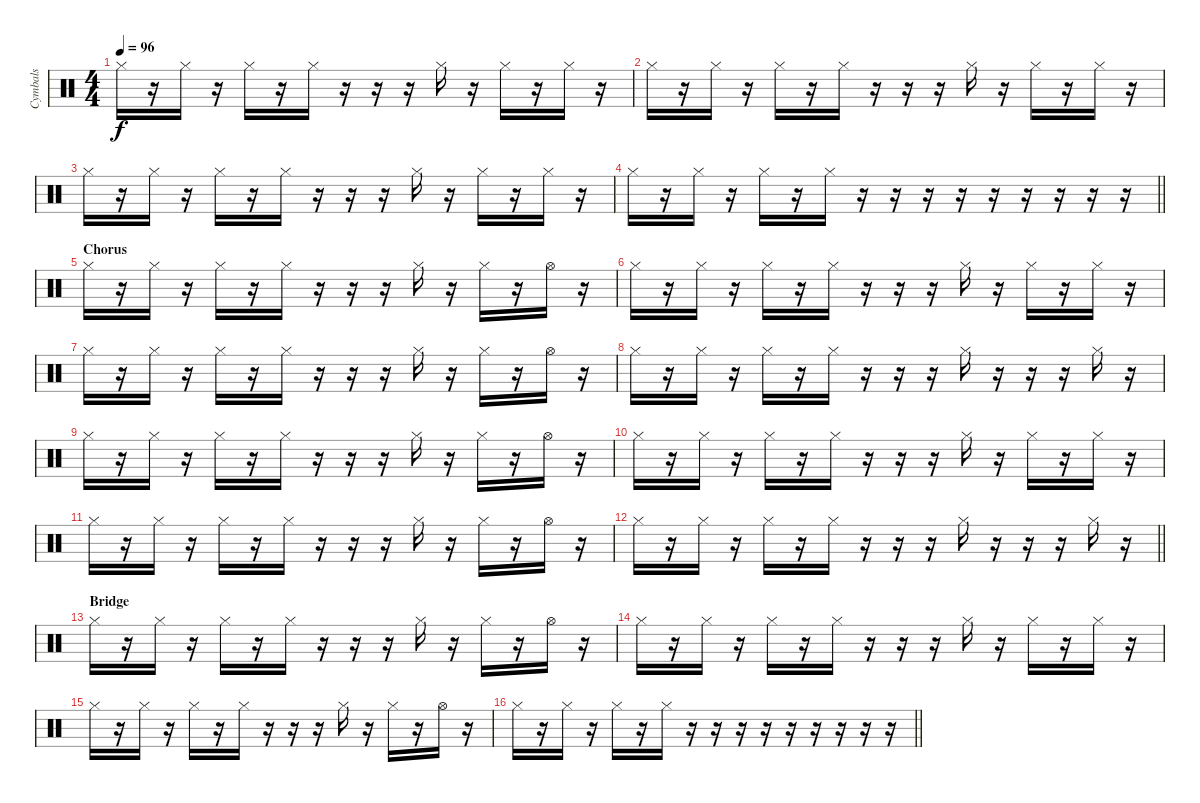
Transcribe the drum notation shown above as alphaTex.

\track ("Cymbals" "Cymbals") {instrument percussion}
\staff {score}
\articulation defaults
\ts (4 4)
\tempo 96
\clef neutral
\ks c "Hi-Hat (closed)".16{dy f}
r.16 "Hi-Hat (closed)".16 r.16 "Hi-Hat (closed)".16 r.16 "Hi-Hat (closed)".16 r.16 r.16 r.16 "Hi-Hat (closed)".16 r.16 "Hi-Hat (closed)".16 r.16 "Hi-Hat (closed)".16 r.16 |
"Hi-Hat (closed)".16 r.16 "Hi-Hat (closed)".16 r.16 "Hi-Hat (closed)".16 r.16 "Hi-Hat (closed)".16 r.16 r.16 r.16 "Hi-Hat (closed)".16 r.16 "Hi-Hat (closed)".16 r.16 "Hi-Hat (closed)".16 r.16 |
"Hi-Hat (closed)".16 r.16 "Hi-Hat (closed)".16 r.16 "Hi-Hat (closed)".16 r.16 "Hi-Hat (closed)".16 r.16 r.16 r.16 "Hi-Hat (closed)".16 r.16 "Hi-Hat (closed)".16 r.16 "Hi-Hat (closed)".16 r.16 |
\barLineRight lightlight "Hi-Hat (closed)".16
r.16 "Hi-Hat (closed)".16 r.16 "Hi-Hat (closed)".16 r.16 "Hi-Hat (closed)".16 r.16 r.16 r.16 r.16 r.16 r.16 r.16 r.16 r.16 |
\section ("" "Chorus")
"Hi-Hat (closed)".16 r.16 "Hi-Hat (closed)".16 r.16 "Hi-Hat (closed)".16 r.16 "Hi-Hat (closed)".16 r.16 r.16 r.16 "Hi-Hat (closed)".16 r.16 "Hi-Hat (closed)".16 r.16 "Hi-Hat (open)".16 r.16 |
"Hi-Hat (closed)".16 r.16 "Hi-Hat (closed)".16 r.16 "Hi-Hat (closed)".16 r.16 "Hi-Hat (closed)".16 r.16 r.16 r.16 "Hi-Hat (closed)".16 r.16 "Hi-Hat (closed)".16 r.16 "Hi-Hat (closed)".16 r.16 |
"Hi-Hat (closed)".16 r.16 "Hi-Hat (closed)".16 r.16 "Hi-Hat (closed)".16 r.16 "Hi-Hat (closed)".16 r.16 r.16 r.16 "Hi-Hat (closed)".16 r.16 "Hi-Hat (closed)".16 r.16 "Hi-Hat (open)".16 r.16 |
"Hi-Hat (closed)".16 r.16 "Hi-Hat (closed)".16 r.16 "Hi-Hat (closed)".16 r.16 "Hi-Hat (closed)".16 r.16 r.16 r.16 "Hi-Hat (closed)".16 r.16 r.16 r.16 "Hi-Hat (closed)".16 r.16 |
"Hi-Hat (closed)".16 r.16 "Hi-Hat (closed)".16 r.16 "Hi-Hat (closed)".16 r.16 "Hi-Hat (closed)".16 r.16 r.16 r.16 "Hi-Hat (closed)".16 r.16 "Hi-Hat (closed)".16 r.16 "Hi-Hat (open)".16 r.16 |
"Hi-Hat (closed)".16 r.16 "Hi-Hat (closed)".16 r.16 "Hi-Hat (closed)".16 r.16 "Hi-Hat (closed)".16 r.16 r.16 r.16 "Hi-Hat (closed)".16 r.16 "Hi-Hat (closed)".16 r.16 "Hi-Hat (closed)".16 r.16 |
"Hi-Hat (closed)".16 r.16 "Hi-Hat (closed)".16 r.16 "Hi-Hat (closed)".16 r.16 "Hi-Hat (closed)".16 r.16 r.16 r.16 "Hi-Hat (closed)".16 r.16 "Hi-Hat (closed)".16 r.16 "Hi-Hat (open)".16 r.16 |
\barLineRight lightlight "Hi-Hat (closed)".16
r.16 "Hi-Hat (closed)".16 r.16 "Hi-Hat (closed)".16 r.16 "Hi-Hat (closed)".16 r.16 r.16 r.16 "Hi-Hat (closed)".16 r.16 r.16 r.16 "Hi-Hat (closed)".16 r.16 |
\section ("" "Bridge")
"Hi-Hat (closed)".16 r.16 "Hi-Hat (closed)".16 r.16 "Hi-Hat (closed)".16 r.16 "Hi-Hat (closed)".16 r.16 r.16 r.16 "Hi-Hat (closed)".16 r.16 "Hi-Hat (closed)".16 r.16 "Hi-Hat (open)".16 r.16 |
"Hi-Hat (closed)".16 r.16 "Hi-Hat (closed)".16 r.16 "Hi-Hat (closed)".16 r.16 "Hi-Hat (closed)".16 r.16 r.16 r.16 "Hi-Hat (closed)".16 r.16 "Hi-Hat (closed)".16 r.16 "Hi-Hat (closed)".16 r.16 |
"Hi-Hat (closed)".16 r.16 "Hi-Hat (closed)".16 r.16 "Hi-Hat (closed)".16 r.16 "Hi-Hat (closed)".16 r.16 r.16 r.16 "Hi-Hat (closed)".16 r.16 "Hi-Hat (closed)".16 r.16 "Hi-Hat (open)".16 r.16 |
\barLineRight lightlight "Hi-Hat (closed)".16
r.16 "Hi-Hat (closed)".16 r.16 "Hi-Hat (closed)".16 r.16 "Hi-Hat (closed)".16 r.16 r.16 r.16 r.16 r.16 r.16 r.16 r.16 r.16
